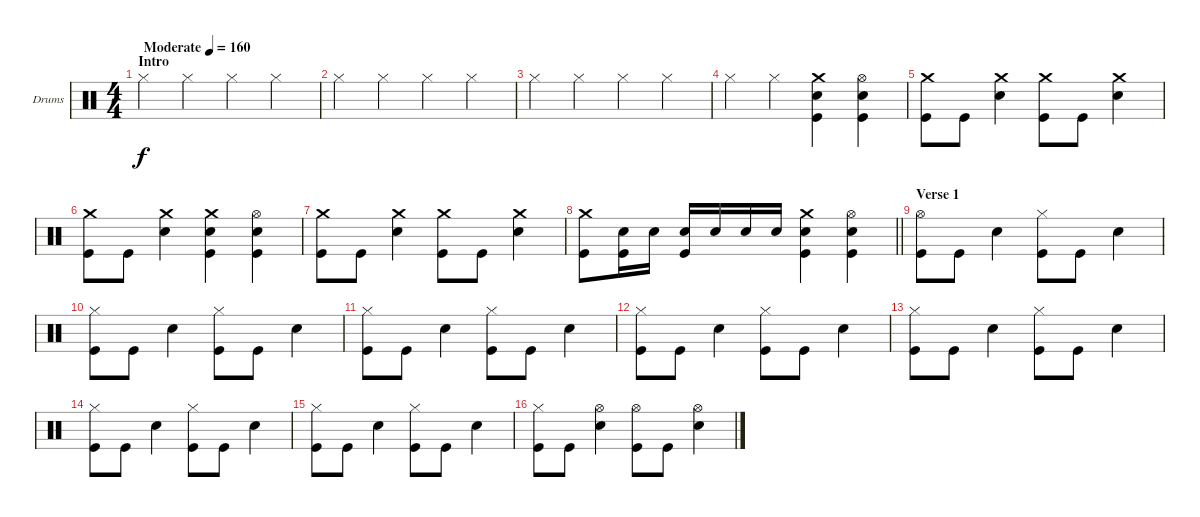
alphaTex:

\bracketExtendMode groupsimilarinstruments
\firstSystemTrackNameOrientation horizontal
\otherSystemsTrackNameOrientation horizontal
\track ("Drum" "Drums") {instrument percussion}
\staff {score}
\articulation defaults
\ts (4 4)
\beaming (8 2 2 2 2)
\section ("" "Intro")
\tempo (160 "Moderate")
\clef neutral
\ks c "Hi-Hat (closed)".4{dy f} "Hi-Hat (closed)".4 "Hi-Hat (closed)".4 "Hi-Hat (closed)".4
|
"Hi-Hat (closed)".4 "Hi-Hat (closed)".4 "Hi-Hat (closed)".4 "Hi-Hat (closed)".4 |
"Hi-Hat (closed)".4 "Hi-Hat (closed)".4 "Hi-Hat (closed)".4 "Hi-Hat (closed)".4 |
"Hi-Hat (closed)".4 "Hi-Hat (closed)".4 ("Crash medium (hit)" "Snare (hit) 2" "Kick (hit)").4 ("Hi-Hat (open)" "Snare (hit) 2" "Kick (hit)").4 |
("Crash medium (hit)" "Kick (hit)").8 "Kick (hit)".8 ("Crash medium (hit)" "Snare (hit) 2").4 ("Crash medium (hit)" "Kick (hit)").8 "Kick (hit)".8 ("Crash medium (hit)" "Snare (hit) 2").4 |
("Crash medium (hit)" "Kick (hit)").8 "Kick (hit)".8 ("Crash medium (hit)" "Snare (hit) 2").4 ("Crash medium (hit)" "Snare (hit) 2" "Kick (hit)").4 ("Hi-Hat (open)" "Snare (hit) 2" "Kick (hit)").4 |
("Crash medium (hit)" "Kick (hit)").8 "Kick (hit)".8 ("Crash medium (hit)" "Snare (hit) 2").4 ("Crash medium (hit)" "Kick (hit)").8 "Kick (hit)".8 ("Crash medium (hit)" "Snare (hit) 2").4 |
\barLineRight lightlight
("Crash medium (hit)" "Kick (hit)").8 ("Snare (hit) 2" "Kick (hit)").16 "Snare (hit) 2".16 ("Snare (hit) 2" "Kick (hit)").16 "Snare (hit) 2".16 "Snare (hit) 2".16 "Snare (hit) 2".16 ("Crash medium (hit)" "Snare (hit) 2" "Kick (hit)").4 ("Hi-Hat (open)" "Snare (hit) 2" "Kick (hit)").4 |
\section ("" "Verse 1")
("Hi-Hat (open)" "Kick (hit)").8 "Kick (hit)".8 "Snare (hit) 2".4 ("Hi-Hat (closed)" "Kick (hit)").8 "Kick (hit)".8 "Snare (hit) 2".4 |
("Hi-Hat (closed)" "Kick (hit)").8 "Kick (hit)".8 "Snare (hit) 2".4 ("Hi-Hat (closed)" "Kick (hit)").8 "Kick (hit)".8 "Snare (hit) 2".4 |
("Hi-Hat (closed)" "Kick (hit)").8 "Kick (hit)".8 "Snare (hit) 2".4 ("Hi-Hat (closed)" "Kick (hit)").8 "Kick (hit)".8 "Snare (hit) 2".4 |
("Hi-Hat (closed)" "Kick (hit)").8 "Kick (hit)".8 "Snare (hit) 2".4 ("Hi-Hat (closed)" "Kick (hit)").8 "Kick (hit)".8 "Snare (hit) 2".4 |
("Hi-Hat (closed)" "Kick (hit)").8 "Kick (hit)".8 "Snare (hit) 2".4 ("Hi-Hat (closed)" "Kick (hit)").8 "Kick (hit)".8 "Snare (hit) 2".4 |
("Hi-Hat (closed)" "Kick (hit)").8 "Kick (hit)".8 "Snare (hit) 2".4 ("Hi-Hat (closed)" "Kick (hit)").8 "Kick (hit)".8 "Snare (hit) 2".4 |
("Hi-Hat (closed)" "Kick (hit)").8 "Kick (hit)".8 "Snare (hit) 2".4 ("Hi-Hat (closed)" "Kick (hit)").8 "Kick (hit)".8 "Snare (hit) 2".4 |
("Hi-Hat (closed)" "Kick (hit)").8 "Kick (hit)".8 ("Hi-Hat (open)" "Snare (hit) 2").4 ("Hi-Hat (open)" "Kick (hit)").8 "Kick (hit)".8 ("Hi-Hat (open)" "Snare (hit) 2").4
